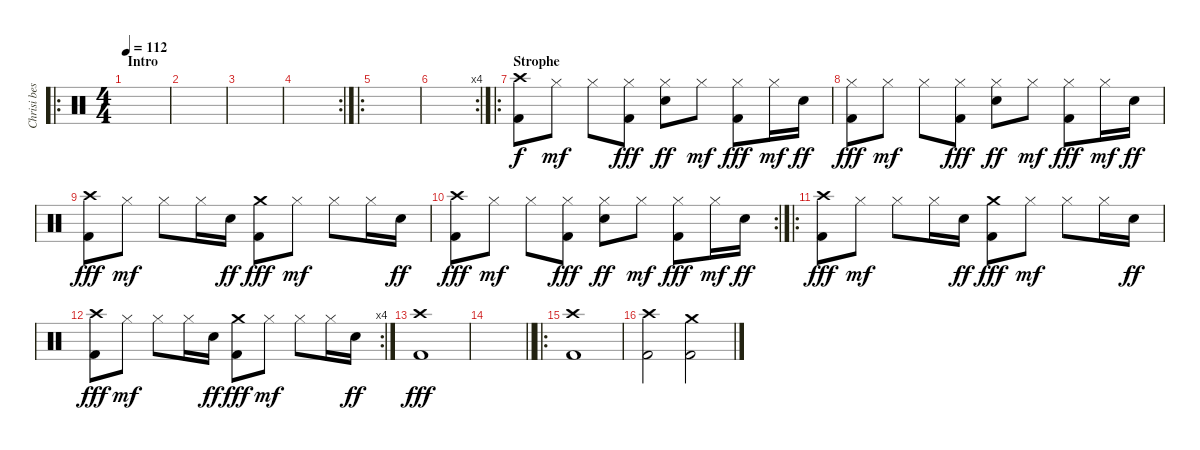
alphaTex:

\track ("Chrisi bestimmt" "Chrisi bes") {instrument percussion}
\staff {score}
\articulation defaults
\ro
\ts (4 4)
\section ("" "Intro")
\tempo 112
\clef neutral
\ks c
|
|
|
\rc 2
|
\ro
|
\rc 4
|
\ro
\section ("" "Strophe")
("Crash high (hit)" "Kick (hit) 2").8 "Hi-Hat (closed)".8{dy mf} "Hi-Hat (closed)".8 ("Hi-Hat (closed)" "Kick (hit) 2").8{dy fff} ("Hi-Hat (closed)" "Electric Snare (hit)").8{dy ff} "Hi-Hat (closed)".8{dy mf} ("Hi-Hat (closed)" "Kick (hit) 2").8{dy fff} "Hi-Hat (closed)".16{dy mf} "Electric Snare (hit)".16{dy ff} |
("Hi-Hat (closed)" "Kick (hit) 2").8{dy fff} "Hi-Hat (closed)".8{dy mf} "Hi-Hat (closed)".8 ("Hi-Hat (closed)" "Kick (hit) 2").8{dy fff} ("Hi-Hat (closed)" "Electric Snare (hit)").8{dy ff} "Hi-Hat (closed)".8{dy mf} ("Hi-Hat (closed)" "Kick (hit) 2").8{dy fff} "Hi-Hat (closed)".16{dy mf} "Electric Snare (hit)".16{dy ff} |
("Crash high (hit)" "Kick (hit) 2").8{dy fff} "Hi-Hat (closed)".8{dy mf} "Hi-Hat (closed)".8 "Hi-Hat (closed)".16 "Electric Snare (hit)".16{dy ff} ("Crash medium (hit)" "Kick (hit) 2").8{dy fff} "Hi-Hat (closed)".8{dy mf} "Hi-Hat (closed)".8 "Hi-Hat (closed)".16 "Electric Snare (hit)".16{dy ff} |
\rc 2
("Crash high (hit)" "Kick (hit) 2").8{dy fff} "Hi-Hat (closed)".8{dy mf} "Hi-Hat (closed)".8 ("Hi-Hat (closed)" "Kick (hit) 2").8{dy fff} ("Hi-Hat (closed)" "Electric Snare (hit)").8{dy ff} "Hi-Hat (closed)".8{dy mf} ("Hi-Hat (closed)" "Kick (hit) 2").8{dy fff} "Hi-Hat (closed)".16{dy mf} "Electric Snare (hit)".16{dy ff} |
\ro
("Crash high (hit)" "Kick (hit) 2").8{dy fff} "Hi-Hat (closed)".8{dy mf} "Hi-Hat (closed)".8 "Hi-Hat (closed)".16 "Electric Snare (hit)".16{dy ff} ("Crash medium (hit)" "Kick (hit) 2").8{dy fff} "Hi-Hat (closed)".8{dy mf} "Hi-Hat (closed)".8 "Hi-Hat (closed)".16 "Electric Snare (hit)".16{dy ff} |
\rc 4
("Crash high (hit)" "Kick (hit) 2").8{dy fff} "Hi-Hat (closed)".8{dy mf} "Hi-Hat (closed)".8 "Hi-Hat (closed)".16 "Electric Snare (hit)".16{dy ff} ("Crash medium (hit)" "Kick (hit) 2").8{dy fff} "Hi-Hat (closed)".8{dy mf} "Hi-Hat (closed)".8 "Hi-Hat (closed)".16 "Electric Snare (hit)".16{dy ff} |
("Crash high (hit)" "Kick (hit) 2").1{dy fff} |
\barLineRight lightlight
|
\ro
("Crash high (hit)" "Kick (hit) 2").1 |
("Crash high (hit)" "Kick (hit) 2").2 ("Crash medium (hit)" "Kick (hit) 2").2
